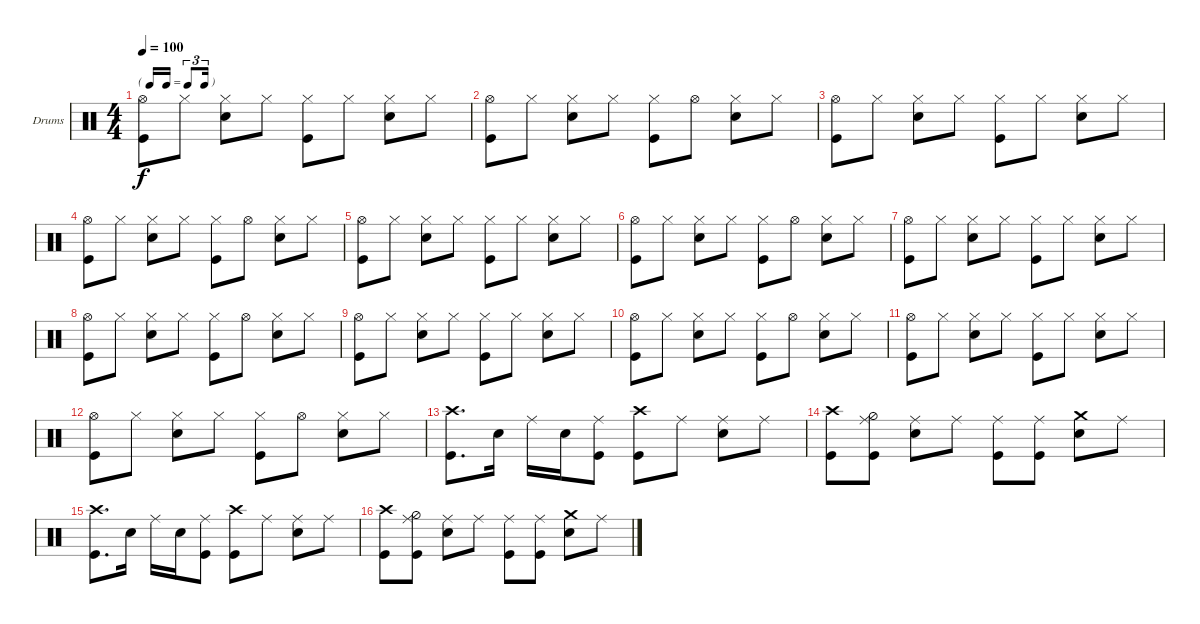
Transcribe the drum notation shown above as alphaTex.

\bracketExtendMode groupsimilarinstruments
\firstSystemTrackNameOrientation horizontal
\otherSystemsTrackNameOrientation horizontal
\track ("Drumkit" "Drums") {instrument percussion}
\staff {score}
\articulation defaults
\ts (4 4)
\tf triplet16th
\tempo 100
\clef neutral
\ks c
("Kick (hit)" "Hi-Hat (open)").8{dy f} "Hi-Hat (closed)".8 ("Hi-Hat (closed)" "Snare (hit) 2").8 "Hi-Hat (closed)".8 ("Hi-Hat (closed)" "Kick (hit)").8 "Hi-Hat (closed)".8 ("Hi-Hat (closed)" "Snare (hit) 2").8 "Hi-Hat (closed)".8 |
("Hi-Hat (open)" "Kick (hit)").8 "Hi-Hat (closed)".8 ("Hi-Hat (closed)" "Snare (hit) 2").8 "Hi-Hat (closed)".8 ("Hi-Hat (closed)" "Kick (hit)").8 "Hi-Hat (open)".8 ("Hi-Hat (closed)" "Snare (hit) 2").8 "Hi-Hat (closed)".8 |
("Kick (hit)" "Hi-Hat (open)").8 "Hi-Hat (closed)".8 ("Hi-Hat (closed)" "Snare (hit) 2").8 "Hi-Hat (closed)".8 ("Hi-Hat (closed)" "Kick (hit)").8 "Hi-Hat (closed)".8 ("Hi-Hat (closed)" "Snare (hit) 2").8 "Hi-Hat (closed)".8 |
("Hi-Hat (open)" "Kick (hit)").8 "Hi-Hat (closed)".8 ("Hi-Hat (closed)" "Snare (hit) 2").8 "Hi-Hat (closed)".8 ("Hi-Hat (closed)" "Kick (hit)").8 "Hi-Hat (open)".8 ("Hi-Hat (closed)" "Snare (hit) 2").8 "Hi-Hat (closed)".8 |
("Kick (hit)" "Hi-Hat (open)").8 "Hi-Hat (closed)".8 ("Hi-Hat (closed)" "Snare (hit) 2").8 "Hi-Hat (closed)".8 ("Hi-Hat (closed)" "Kick (hit)").8 "Hi-Hat (closed)".8 ("Hi-Hat (closed)" "Snare (hit) 2").8 "Hi-Hat (closed)".8 |
("Hi-Hat (open)" "Kick (hit)").8 "Hi-Hat (closed)".8 ("Hi-Hat (closed)" "Snare (hit) 2").8 "Hi-Hat (closed)".8 ("Hi-Hat (closed)" "Kick (hit)").8 "Hi-Hat (open)".8 ("Hi-Hat (closed)" "Snare (hit) 2").8 "Hi-Hat (closed)".8 |
("Kick (hit)" "Hi-Hat (open)").8 "Hi-Hat (closed)".8 ("Hi-Hat (closed)" "Snare (hit) 2").8 "Hi-Hat (closed)".8 ("Hi-Hat (closed)" "Kick (hit)").8 "Hi-Hat (closed)".8 ("Hi-Hat (closed)" "Snare (hit) 2").8 "Hi-Hat (closed)".8 |
("Hi-Hat (open)" "Kick (hit)").8 "Hi-Hat (closed)".8 ("Hi-Hat (closed)" "Snare (hit) 2").8 "Hi-Hat (closed)".8 ("Hi-Hat (closed)" "Kick (hit)").8 "Hi-Hat (open)".8 ("Hi-Hat (closed)" "Snare (hit) 2").8 "Hi-Hat (closed)".8 |
("Kick (hit)" "Hi-Hat (open)").8 "Hi-Hat (closed)".8 ("Hi-Hat (closed)" "Snare (hit) 2").8 "Hi-Hat (closed)".8 ("Hi-Hat (closed)" "Kick (hit)").8 "Hi-Hat (closed)".8 ("Hi-Hat (closed)" "Snare (hit) 2").8 "Hi-Hat (closed)".8 |
("Hi-Hat (open)" "Kick (hit)").8 "Hi-Hat (closed)".8 ("Hi-Hat (closed)" "Snare (hit) 2").8 "Hi-Hat (closed)".8 ("Hi-Hat (closed)" "Kick (hit)").8 "Hi-Hat (open)".8 ("Hi-Hat (closed)" "Snare (hit) 2").8 "Hi-Hat (closed)".8 |
("Kick (hit)" "Hi-Hat (open)").8 "Hi-Hat (closed)".8 ("Hi-Hat (closed)" "Snare (hit) 2").8 "Hi-Hat (closed)".8 ("Hi-Hat (closed)" "Kick (hit)").8 "Hi-Hat (closed)".8 ("Hi-Hat (closed)" "Snare (hit) 2").8 "Hi-Hat (closed)".8 |
("Hi-Hat (open)" "Kick (hit)").8 "Hi-Hat (closed)".8 ("Hi-Hat (closed)" "Snare (hit) 2").8 "Hi-Hat (closed)".8 ("Hi-Hat (closed)" "Kick (hit)").8 "Hi-Hat (open)".8 ("Hi-Hat (closed)" "Snare (hit) 2").8 "Hi-Hat (closed)".8 |
("Kick (hit)" "Crash high (hit)").8{d} "Snare (hit) 2".16 "Ride (middle)".16 "Snare (hit) 2".16 ("Kick (hit)" "Ride (middle)").8 ("Kick (hit)" "Crash high (hit)").8 "Ride (middle)".8 ("Snare (hit) 2" "Ride (middle)").8 "Ride (middle)".8 |
("Kick (hit)" "Crash high (hit)").8 ("Kick (hit)" "Hi-Hat (half)" "Ride (middle)").8 ("Snare (hit) 2" "Ride (middle)").8 "Ride (middle)".8 ("Ride (middle)" "Kick (hit)").8 ("Ride (middle)" "Kick (hit)").8 ("Snare (hit) 2" "Crash medium (hit)").8 "Ride (middle)".8 |
("Kick (hit)" "Crash high (hit)").8{d} "Snare (hit) 2".16 "Ride (middle)".16 "Snare (hit) 2".16 ("Kick (hit)" "Ride (middle)").8 ("Kick (hit)" "Crash high (hit)").8 "Ride (middle)".8 ("Snare (hit) 2" "Ride (middle)").8 "Ride (middle)".8 |
("Kick (hit)" "Crash high (hit)").8 ("Kick (hit)" "Hi-Hat (half)" "Ride (middle)").8 ("Snare (hit) 2" "Ride (middle)").8 "Ride (middle)".8 ("Ride (middle)" "Kick (hit)").8 ("Ride (middle)" "Kick (hit)").8 ("Snare (hit) 2" "Crash medium (hit)").8 "Ride (middle)".8
